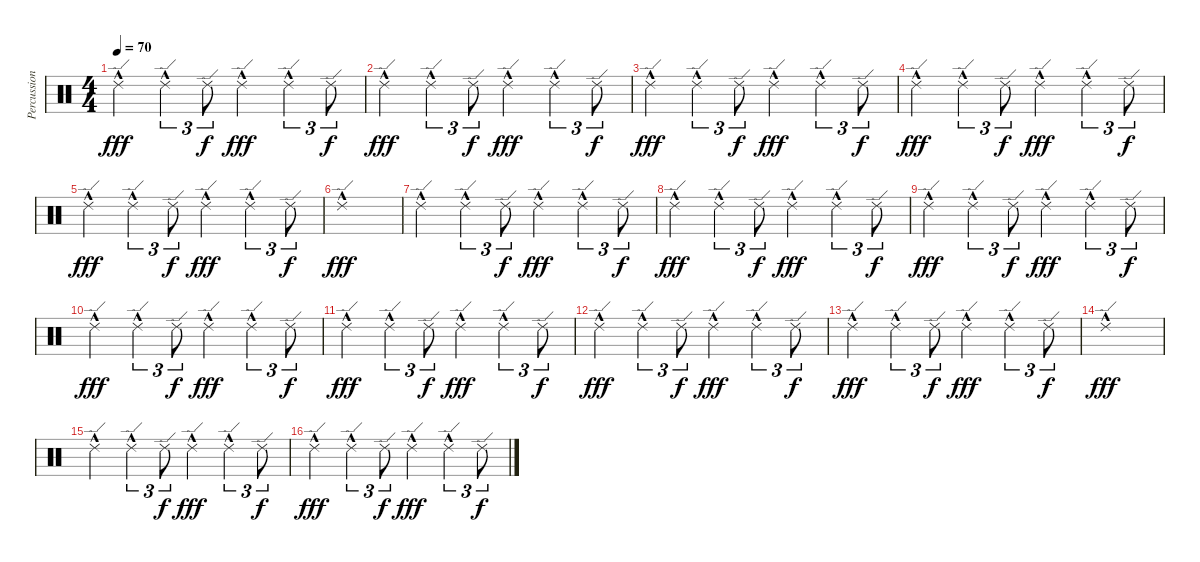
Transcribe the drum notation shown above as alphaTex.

\track ("Percussion" "Percussion") {instrument percussion}
\staff {score}
\articulation defaults
\ts (4 4)
\tempo 70
\clef neutral
\ks c "Ride (edge) 2"{hac}.4{dy fff} "Ride (edge) 2"{hac}.4{tu (3 2)} "Ride (edge) 2".8{tu (3 2) dy f} "Ride (edge) 2"{hac}.4{dy fff} "Ride (edge) 2"{hac}.4{tu (3 2)} "Ride (edge) 2".8{tu (3 2) dy f}
|
"Ride (edge) 2"{hac}.4{dy fff} "Ride (edge) 2"{hac}.4{tu (3 2)} "Ride (edge) 2".8{tu (3 2) dy f} "Ride (edge) 2"{hac}.4{dy fff} "Ride (edge) 2"{hac}.4{tu (3 2)} "Ride (edge) 2".8{tu (3 2) dy f} |
"Ride (edge) 2"{hac}.4{dy fff} "Ride (edge) 2"{hac}.4{tu (3 2)} "Ride (edge) 2".8{tu (3 2) dy f} "Ride (edge) 2"{hac}.4{dy fff} "Ride (edge) 2"{hac}.4{tu (3 2)} "Ride (edge) 2".8{tu (3 2) dy f} |
"Ride (edge) 2"{hac}.4{dy fff} "Ride (edge) 2"{hac}.4{tu (3 2)} "Ride (edge) 2".8{tu (3 2) dy f} "Ride (edge) 2"{hac}.4{dy fff} "Ride (edge) 2"{hac}.4{tu (3 2)} "Ride (edge) 2".8{tu (3 2) dy f} |
"Ride (edge) 2"{hac}.4{dy fff} "Ride (edge) 2"{hac}.4{tu (3 2)} "Ride (edge) 2".8{tu (3 2) dy f} "Ride (edge) 2"{hac}.4{dy fff} "Ride (edge) 2"{hac}.4{tu (3 2)} "Ride (edge) 2".8{tu (3 2) dy f} |
"Ride (edge) 2"{hac}.1{dy fff} |
"Ride (edge) 2"{hac}.4 "Ride (edge) 2"{hac}.4{tu (3 2)} "Ride (edge) 2".8{tu (3 2) dy f} "Ride (edge) 2"{hac}.4{dy fff} "Ride (edge) 2"{hac}.4{tu (3 2)} "Ride (edge) 2".8{tu (3 2) dy f} |
"Ride (edge) 2"{hac}.4{dy fff} "Ride (edge) 2"{hac}.4{tu (3 2)} "Ride (edge) 2".8{tu (3 2) dy f} "Ride (edge) 2"{hac}.4{dy fff} "Ride (edge) 2"{hac}.4{tu (3 2)} "Ride (edge) 2".8{tu (3 2) dy f} |
"Ride (edge) 2"{hac}.4{dy fff} "Ride (edge) 2"{hac}.4{tu (3 2)} "Ride (edge) 2".8{tu (3 2) dy f} "Ride (edge) 2"{hac}.4{dy fff} "Ride (edge) 2"{hac}.4{tu (3 2)} "Ride (edge) 2".8{tu (3 2) dy f} |
"Ride (edge) 2"{hac}.4{dy fff} "Ride (edge) 2"{hac}.4{tu (3 2)} "Ride (edge) 2".8{tu (3 2) dy f} "Ride (edge) 2"{hac}.4{dy fff} "Ride (edge) 2"{hac}.4{tu (3 2)} "Ride (edge) 2".8{tu (3 2) dy f} |
"Ride (edge) 2"{hac}.4{dy fff} "Ride (edge) 2"{hac}.4{tu (3 2)} "Ride (edge) 2".8{tu (3 2) dy f} "Ride (edge) 2"{hac}.4{dy fff} "Ride (edge) 2"{hac}.4{tu (3 2)} "Ride (edge) 2".8{tu (3 2) dy f} |
"Ride (edge) 2"{hac}.4{dy fff} "Ride (edge) 2"{hac}.4{tu (3 2)} "Ride (edge) 2".8{tu (3 2) dy f} "Ride (edge) 2"{hac}.4{dy fff} "Ride (edge) 2"{hac}.4{tu (3 2)} "Ride (edge) 2".8{tu (3 2) dy f} |
"Ride (edge) 2"{hac}.4{dy fff} "Ride (edge) 2"{hac}.4{tu (3 2)} "Ride (edge) 2".8{tu (3 2) dy f} "Ride (edge) 2"{hac}.4{dy fff} "Ride (edge) 2"{hac}.4{tu (3 2)} "Ride (edge) 2".8{tu (3 2) dy f} |
"Ride (edge) 2"{hac}.1{dy fff} |
"Ride (edge) 2"{hac}.4 "Ride (edge) 2"{hac}.4{tu (3 2)} "Ride (edge) 2".8{tu (3 2) dy f} "Ride (edge) 2"{hac}.4{dy fff} "Ride (edge) 2"{hac}.4{tu (3 2)} "Ride (edge) 2".8{tu (3 2) dy f} |
"Ride (edge) 2"{hac}.4{dy fff} "Ride (edge) 2"{hac}.4{tu (3 2)} "Ride (edge) 2".8{tu (3 2) dy f} "Ride (edge) 2"{hac}.4{dy fff} "Ride (edge) 2"{hac}.4{tu (3 2)} "Ride (edge) 2".8{tu (3 2) dy f}
